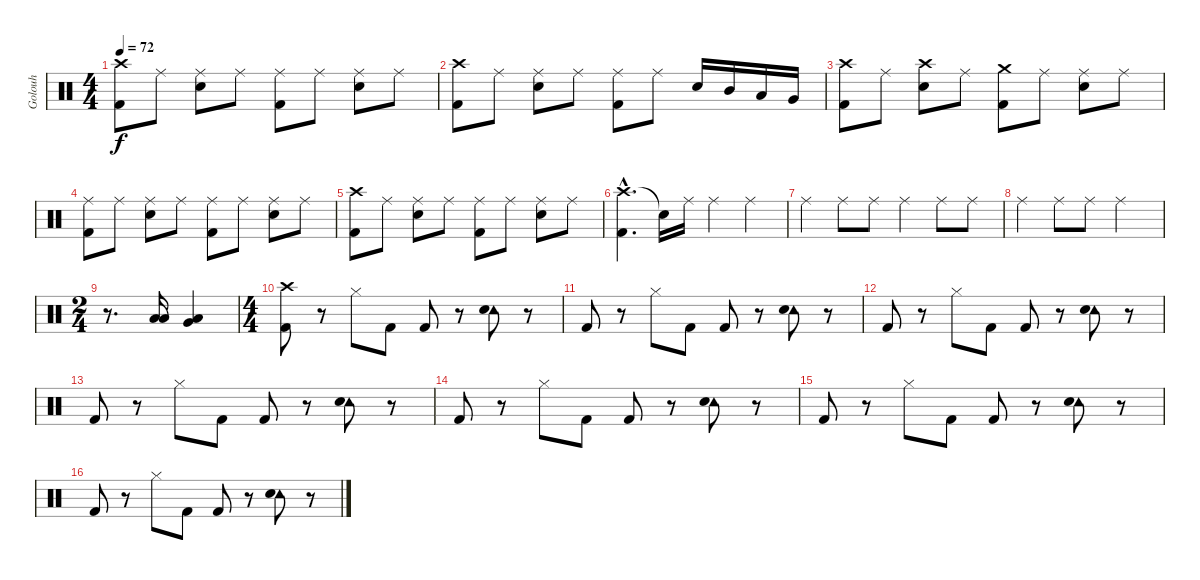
\track ("Golouh" "Golouh") {instrument percussion}
\staff {score}
\articulation defaults
\ts (4 4)
\tempo 72
\clef neutral
\ks c
("Crash high (hit)" "Kick (hit) 2").8{dy f} "Ride (middle)".8 ("Ride (middle)" "Snare (hit) 2").8 "Ride (middle)".8 ("Ride (middle)" "Kick (hit) 2").8 "Ride (middle)".8 ("Ride (middle)" "Snare (hit) 2").8 "Ride (middle)".8 |
("Crash high (hit)" "Kick (hit) 2").8 "Ride (middle)".8 ("Ride (middle)" "Snare (hit) 2").8 "Ride (middle)".8 ("Ride (middle)" "Kick (hit) 2").8 "Ride (middle)".8 "Snare (hit) 2".16 "Mid Tom (hit)".16 "Low Tom (hit)".16 "Very Low Tom (hit)".16 |
("Crash high (hit)" "Kick (hit) 2").8 "Ride (middle)".8 ("Crash high (hit)" "Snare (hit) 2").8 "Ride (middle)".8 ("Crash medium (hit)" "Kick (hit) 2").8 "Ride (middle)".8 ("Ride (middle)" "Snare (hit) 2").8 "Ride (middle)".8 |
("Ride (middle)" "Kick (hit) 2").8 "Ride (middle)".8 ("Ride (middle)" "Snare (hit) 2").8 "Ride (middle)".8 ("Ride (middle)" "Kick (hit) 2").8 "Ride (middle)".8 ("Ride (middle)" "Snare (hit) 2").8 "Ride (middle)".8 |
("Crash high (hit)" "Kick (hit) 2").8 "Ride (middle)".8 ("Ride (middle)" "Snare (hit) 2").8 "Ride (middle)".8 ("Ride (middle)" "Kick (hit) 2").8 "Ride (middle)".8 ("Ride (middle)" "Snare (hit) 2").8 "Ride (middle)".8 |
("Crash high (hit)"{hac} "Kick (hit) 2"{hac}).4{d} "Snare (hit)"{t}.16 "Ride (middle)".16 "Ride (middle)".4 "Ride (middle)".4 |
"Ride (middle)".4 "Ride (middle)".8 "Ride (middle)".8 "Ride (middle)".4 "Ride (middle)".8 "Ride (middle)".8 |
"Ride (middle)".4 "Ride (middle)".8 "Ride (middle)".8 "Ride (middle)".2 |
\ts (2 4)
r.8{d} ("Low Tom (hit)" "Low Floor Tom (hit)").16 ("Very Low Tom (hit)" "Low Floor Tom (hit)").4 |
\ts (4 4)
("Crash high (hit)" "Kick (hit) 2").8 r.8 "Hi-Hat (closed)".8 "Kick (hit) 2".8 "Kick (hit) 2".8 r.8 ("Tambourine (hit)" "Snare (hit) 2").8 r.8 |
"Kick (hit) 2".8 r.8 "Hi-Hat (closed)".8 "Kick (hit) 2".8 "Kick (hit) 2".8 r.8 ("Tambourine (hit)" "Snare (hit) 2").8 r.8 |
"Kick (hit) 2".8 r.8 "Hi-Hat (closed)".8 "Kick (hit) 2".8 "Kick (hit) 2".8 r.8 ("Tambourine (hit)" "Snare (hit) 2").8 r.8 |
"Kick (hit) 2".8 r.8 "Hi-Hat (closed)".8 "Kick (hit) 2".8 "Kick (hit) 2".8 r.8 ("Tambourine (hit)" "Snare (hit) 2").8 r.8 |
"Kick (hit) 2".8 r.8 "Hi-Hat (closed)".8 "Kick (hit) 2".8 "Kick (hit) 2".8 r.8 ("Tambourine (hit)" "Snare (hit) 2").8 r.8 |
"Kick (hit) 2".8 r.8 "Hi-Hat (closed)".8 "Kick (hit) 2".8 "Kick (hit) 2".8 r.8 ("Tambourine (hit)" "Snare (hit) 2").8 r.8 |
"Kick (hit) 2".8 r.8 "Hi-Hat (closed)".8 "Kick (hit) 2".8 "Kick (hit) 2".8 r.8 ("Tambourine (hit)" "Snare (hit) 2").8 r.8
